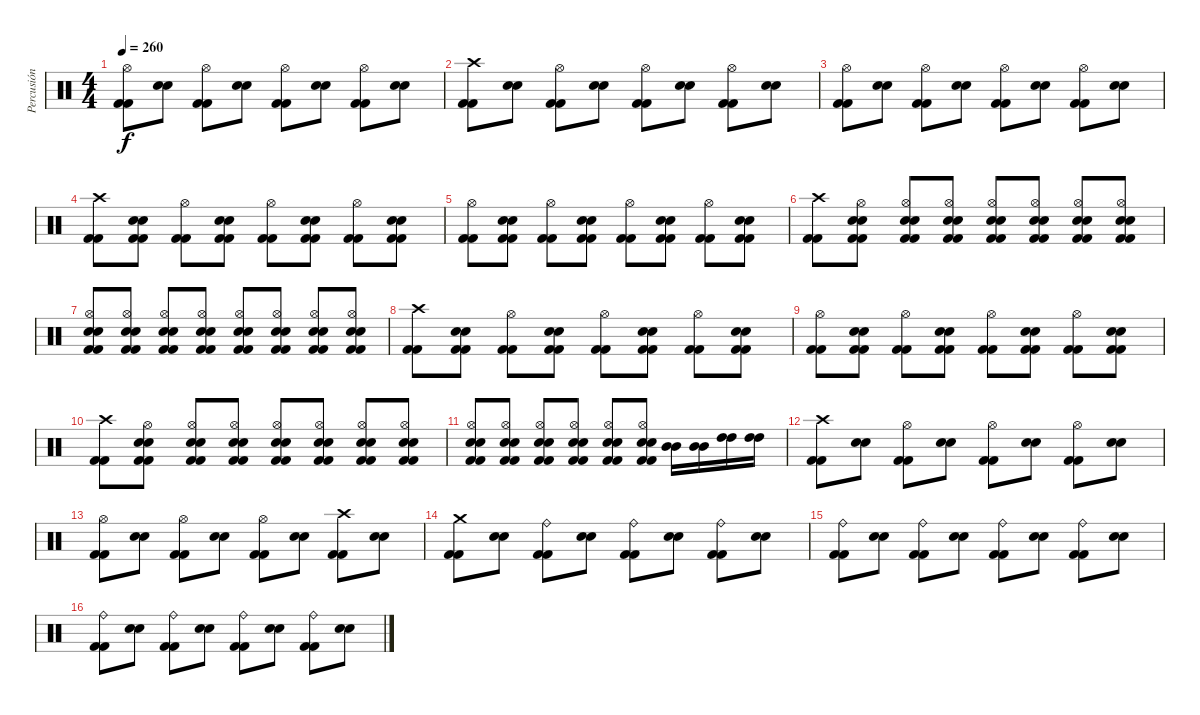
\track ("Percusión" "Percusión") {instrument percussion}
\staff {score}
\articulation defaults
\ts (4 4)
\tempo 260
\clef neutral
\ks c
("Kick (hit) 2" "Kick (hit) 2" "Hi-Hat (open)").8{dy f} ("Electric Snare (hit)" "Electric Snare (hit)").8 ("Kick (hit) 2" "Kick (hit) 2" "Hi-Hat (open)").8 ("Electric Snare (hit)" "Electric Snare (hit)").8 ("Kick (hit) 2" "Kick (hit) 2" "Hi-Hat (open)").8 ("Electric Snare (hit)" "Electric Snare (hit)").8 ("Kick (hit) 2" "Kick (hit) 2" "Hi-Hat (open)").8 ("Electric Snare (hit)" "Electric Snare (hit)").8 |
("Kick (hit) 2" "Kick (hit) 2" "Crash high (hit)").8 ("Electric Snare (hit)" "Electric Snare (hit)").8 ("Kick (hit) 2" "Kick (hit) 2" "Hi-Hat (open)").8 ("Electric Snare (hit)" "Electric Snare (hit)").8 ("Kick (hit) 2" "Kick (hit) 2" "Hi-Hat (open)").8 ("Electric Snare (hit)" "Electric Snare (hit)").8 ("Kick (hit) 2" "Kick (hit) 2" "Hi-Hat (open)").8 ("Electric Snare (hit)" "Electric Snare (hit)").8 |
("Kick (hit) 2" "Kick (hit) 2" "Hi-Hat (open)").8 ("Electric Snare (hit)" "Electric Snare (hit)").8 ("Kick (hit) 2" "Kick (hit) 2" "Hi-Hat (open)").8 ("Electric Snare (hit)" "Electric Snare (hit)").8 ("Kick (hit) 2" "Kick (hit) 2" "Hi-Hat (open)").8 ("Electric Snare (hit)" "Electric Snare (hit)").8 ("Kick (hit) 2" "Kick (hit) 2" "Hi-Hat (open)").8 ("Electric Snare (hit)" "Electric Snare (hit)").8 |
("Kick (hit) 2" "Kick (hit) 2" "Crash high (hit)").8 ("Kick (hit) 2" "Kick (hit) 2" "Electric Snare (hit)" "Electric Snare (hit)").8 ("Kick (hit) 2" "Kick (hit) 2" "Hi-Hat (open)").8 ("Kick (hit) 2" "Kick (hit) 2" "Electric Snare (hit)" "Electric Snare (hit)").8 ("Kick (hit) 2" "Kick (hit) 2" "Hi-Hat (open)").8 ("Kick (hit) 2" "Kick (hit) 2" "Electric Snare (hit)" "Electric Snare (hit)").8 ("Kick (hit) 2" "Kick (hit) 2" "Hi-Hat (open)").8 ("Kick (hit) 2" "Kick (hit) 2" "Electric Snare (hit)" "Electric Snare (hit)").8 |
("Kick (hit) 2" "Kick (hit) 2" "Hi-Hat (open)").8 ("Kick (hit) 2" "Kick (hit) 2" "Electric Snare (hit)" "Electric Snare (hit)").8 ("Kick (hit) 2" "Kick (hit) 2" "Hi-Hat (open)").8 ("Kick (hit) 2" "Kick (hit) 2" "Electric Snare (hit)" "Electric Snare (hit)").8 ("Kick (hit) 2" "Kick (hit) 2" "Hi-Hat (open)").8 ("Kick (hit) 2" "Kick (hit) 2" "Electric Snare (hit)" "Electric Snare (hit)").8 ("Kick (hit) 2" "Kick (hit) 2" "Hi-Hat (open)").8 ("Kick (hit) 2" "Kick (hit) 2" "Electric Snare (hit)" "Electric Snare (hit)").8 |
("Kick (hit) 2" "Kick (hit) 2" "Crash high (hit)").8 ("Kick (hit) 2" "Kick (hit) 2" "Electric Snare (hit)" "Electric Snare (hit)" "Hi-Hat (open)").8 ("Kick (hit) 2" "Kick (hit) 2" "Electric Snare (hit)" "Electric Snare (hit)" "Hi-Hat (open)").8 ("Kick (hit) 2" "Kick (hit) 2" "Electric Snare (hit)" "Electric Snare (hit)" "Hi-Hat (open)").8 ("Kick (hit) 2" "Kick (hit) 2" "Electric Snare (hit)" "Electric Snare (hit)" "Hi-Hat (open)").8 ("Kick (hit) 2" "Kick (hit) 2" "Electric Snare (hit)" "Electric Snare (hit)" "Hi-Hat (open)").8 ("Kick (hit) 2" "Kick (hit) 2" "Electric Snare (hit)" "Electric Snare (hit)" "Hi-Hat (open)").8 ("Kick (hit) 2" "Kick (hit) 2" "Electric Snare (hit)" "Electric Snare (hit)" "Hi-Hat (open)").8 |
("Kick (hit) 2" "Kick (hit) 2" "Electric Snare (hit)" "Electric Snare (hit)" "Hi-Hat (open)").8 ("Kick (hit) 2" "Kick (hit) 2" "Electric Snare (hit)" "Electric Snare (hit)" "Hi-Hat (open)").8 ("Kick (hit) 2" "Kick (hit) 2" "Electric Snare (hit)" "Electric Snare (hit)" "Hi-Hat (open)").8 ("Kick (hit) 2" "Kick (hit) 2" "Electric Snare (hit)" "Electric Snare (hit)" "Hi-Hat (open)").8 ("Kick (hit) 2" "Kick (hit) 2" "Electric Snare (hit)" "Electric Snare (hit)" "Hi-Hat (open)").8 ("Kick (hit) 2" "Kick (hit) 2" "Electric Snare (hit)" "Electric Snare (hit)" "Hi-Hat (open)").8 ("Kick (hit) 2" "Kick (hit) 2" "Electric Snare (hit)" "Electric Snare (hit)" "Hi-Hat (open)").8 ("Kick (hit) 2" "Kick (hit) 2" "Electric Snare (hit)" "Electric Snare (hit)" "Hi-Hat (open)").8 |
("Kick (hit) 2" "Kick (hit) 2" "Crash high (hit)").8 ("Kick (hit) 2" "Kick (hit) 2" "Electric Snare (hit)" "Electric Snare (hit)").8 ("Kick (hit) 2" "Kick (hit) 2" "Hi-Hat (open)").8 ("Kick (hit) 2" "Kick (hit) 2" "Electric Snare (hit)" "Electric Snare (hit)").8 ("Kick (hit) 2" "Kick (hit) 2" "Hi-Hat (open)").8 ("Kick (hit) 2" "Kick (hit) 2" "Electric Snare (hit)" "Electric Snare (hit)").8 ("Kick (hit) 2" "Kick (hit) 2" "Hi-Hat (open)").8 ("Kick (hit) 2" "Kick (hit) 2" "Electric Snare (hit)" "Electric Snare (hit)").8 |
("Kick (hit) 2" "Kick (hit) 2" "Hi-Hat (open)").8 ("Kick (hit) 2" "Kick (hit) 2" "Electric Snare (hit)" "Electric Snare (hit)").8 ("Kick (hit) 2" "Kick (hit) 2" "Hi-Hat (open)").8 ("Kick (hit) 2" "Kick (hit) 2" "Electric Snare (hit)" "Electric Snare (hit)").8 ("Kick (hit) 2" "Kick (hit) 2" "Hi-Hat (open)").8 ("Kick (hit) 2" "Kick (hit) 2" "Electric Snare (hit)" "Electric Snare (hit)").8 ("Kick (hit) 2" "Kick (hit) 2" "Hi-Hat (open)").8 ("Kick (hit) 2" "Kick (hit) 2" "Electric Snare (hit)" "Electric Snare (hit)").8 |
("Kick (hit) 2" "Kick (hit) 2" "Crash high (hit)").8 ("Kick (hit) 2" "Kick (hit) 2" "Electric Snare (hit)" "Electric Snare (hit)" "Hi-Hat (open)").8 ("Kick (hit) 2" "Kick (hit) 2" "Electric Snare (hit)" "Electric Snare (hit)" "Hi-Hat (open)").8 ("Kick (hit) 2" "Kick (hit) 2" "Electric Snare (hit)" "Electric Snare (hit)" "Hi-Hat (open)").8 ("Kick (hit) 2" "Kick (hit) 2" "Electric Snare (hit)" "Electric Snare (hit)" "Hi-Hat (open)").8 ("Kick (hit) 2" "Kick (hit) 2" "Electric Snare (hit)" "Electric Snare (hit)" "Hi-Hat (open)").8 ("Kick (hit) 2" "Kick (hit) 2" "Electric Snare (hit)" "Electric Snare (hit)" "Hi-Hat (open)").8 ("Kick (hit) 2" "Kick (hit) 2" "Electric Snare (hit)" "Electric Snare (hit)" "Hi-Hat (open)").8 |
("Kick (hit) 2" "Kick (hit) 2" "Electric Snare (hit)" "Electric Snare (hit)" "Hi-Hat (open)").8 ("Kick (hit) 2" "Kick (hit) 2" "Electric Snare (hit)" "Electric Snare (hit)" "Hi-Hat (open)").8 ("Kick (hit) 2" "Kick (hit) 2" "Electric Snare (hit)" "Electric Snare (hit)" "Hi-Hat (open)").8 ("Kick (hit) 2" "Kick (hit) 2" "Electric Snare (hit)" "Electric Snare (hit)" "Hi-Hat (open)").8 ("Kick (hit) 2" "Kick (hit) 2" "Electric Snare (hit)" "Electric Snare (hit)" "Hi-Hat (open)").8 ("Kick (hit) 2" "Kick (hit) 2" "Electric Snare (hit)" "Electric Snare (hit)" "Hi-Hat (open)").8 ("Mid Tom (hit)" "Mid Tom (hit)").16 ("Mid Tom (hit)" "Mid Tom (hit)").16 ("High Tom (hit)" "High Tom (hit)").16 ("High Tom (hit)" "High Tom (hit)").16 |
("Kick (hit) 2" "Kick (hit) 2" "Crash high (hit)").8 ("Electric Snare (hit)" "Electric Snare (hit)").8 ("Kick (hit) 2" "Kick (hit) 2" "Hi-Hat (open)").8 ("Electric Snare (hit)" "Electric Snare (hit)").8 ("Kick (hit) 2" "Kick (hit) 2" "Hi-Hat (open)").8 ("Electric Snare (hit)" "Electric Snare (hit)").8 ("Kick (hit) 2" "Kick (hit) 2" "Hi-Hat (open)").8 ("Electric Snare (hit)" "Electric Snare (hit)").8 |
("Kick (hit) 2" "Kick (hit) 2" "Hi-Hat (open)").8 ("Electric Snare (hit)" "Electric Snare (hit)").8 ("Kick (hit) 2" "Kick (hit) 2" "Hi-Hat (open)").8 ("Electric Snare (hit)" "Electric Snare (hit)").8 ("Kick (hit) 2" "Kick (hit) 2" "Hi-Hat (open)").8 ("Electric Snare (hit)" "Electric Snare (hit)").8 ("Kick (hit) 2" "Kick (hit) 2" "Crash high (hit)").8 ("Electric Snare (hit)" "Electric Snare (hit)").8 |
("Kick (hit) 2" "Kick (hit) 2" "Crash medium (hit)").8 ("Electric Snare (hit)" "Electric Snare (hit)").8 ("Kick (hit) 2" "Kick (hit) 2" "Ride (bell)").8 ("Electric Snare (hit)" "Electric Snare (hit)").8 ("Kick (hit) 2" "Kick (hit) 2" "Ride (bell)").8 ("Electric Snare (hit)" "Electric Snare (hit)").8 ("Kick (hit) 2" "Kick (hit) 2" "Ride (bell)").8 ("Electric Snare (hit)" "Electric Snare (hit)").8 |
("Kick (hit) 2" "Kick (hit) 2" "Ride (bell)").8 ("Electric Snare (hit)" "Electric Snare (hit)").8 ("Kick (hit) 2" "Kick (hit) 2" "Ride (bell)").8 ("Electric Snare (hit)" "Electric Snare (hit)").8 ("Kick (hit) 2" "Kick (hit) 2" "Ride (bell)").8 ("Electric Snare (hit)" "Electric Snare (hit)").8 ("Kick (hit) 2" "Kick (hit) 2" "Ride (bell)").8 ("Electric Snare (hit)" "Electric Snare (hit)").8 |
("Kick (hit) 2" "Kick (hit) 2" "Ride (bell)").8 ("Electric Snare (hit)" "Electric Snare (hit)").8 ("Kick (hit) 2" "Kick (hit) 2" "Ride (bell)").8 ("Electric Snare (hit)" "Electric Snare (hit)").8 ("Kick (hit) 2" "Kick (hit) 2" "Ride (bell)").8 ("Electric Snare (hit)" "Electric Snare (hit)").8 ("Kick (hit) 2" "Kick (hit) 2" "Ride (bell)").8 ("Electric Snare (hit)" "Electric Snare (hit)").8
